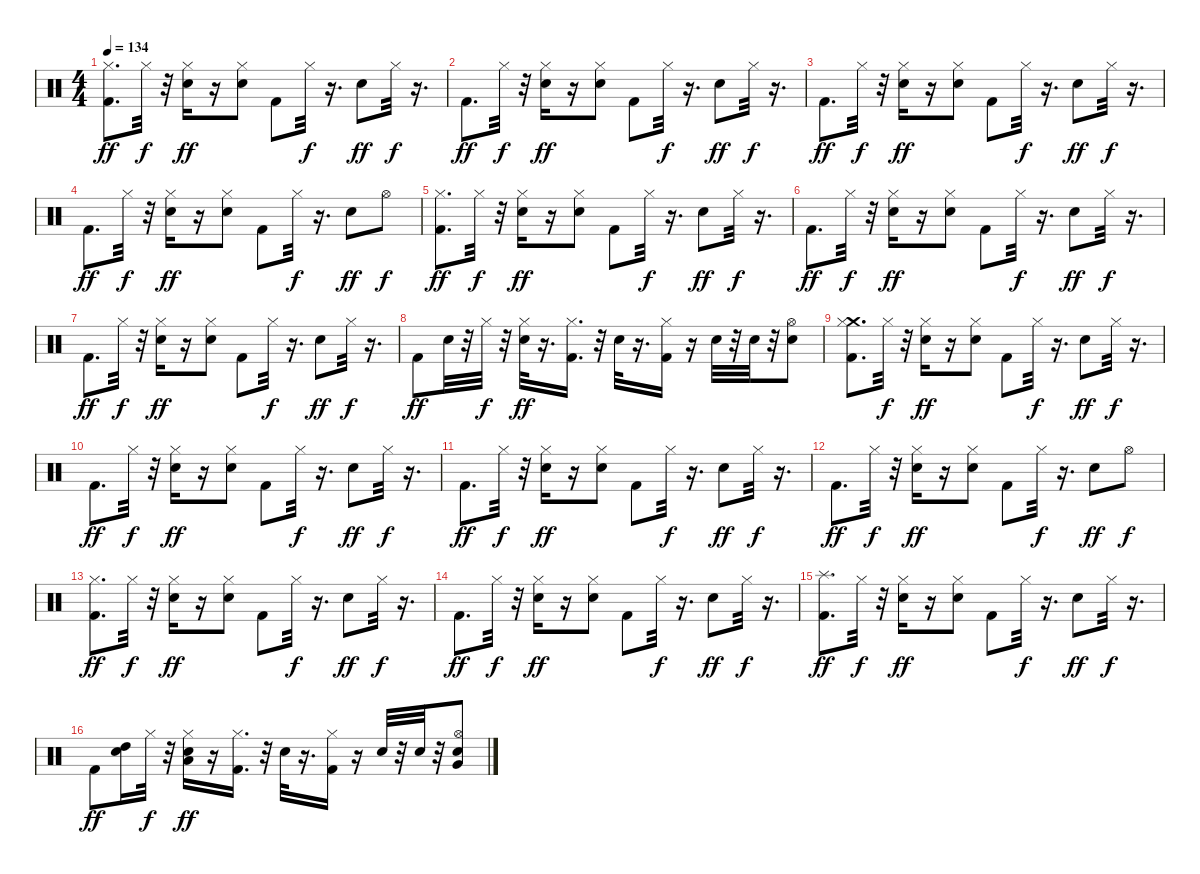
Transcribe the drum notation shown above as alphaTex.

\track "" {instrument percussion}
\staff {score}
\articulation defaults
\ts (4 4)
\tempo 134
\clef neutral
\ks c
("Hi-Hat (closed)" "Kick (hit) 2").8{d dy ff} "Hi-Hat (closed)".32{dy f} r.32 ("Hi-Hat (closed)" "Snare (hit) 2").16{dy ff} r.16 ("Hi-Hat (closed)" "Snare (hit) 2").8 "Kick (hit) 2".8 "Hi-Hat (closed)".32{dy f} r.16{d} "Snare (hit) 2".8{dy ff} "Hi-Hat (closed)".32{dy f} r.16{d} |
"Kick (hit) 2".8{d dy ff} "Hi-Hat (closed)".32{dy f} r.32 ("Hi-Hat (closed)" "Snare (hit) 2").16{dy ff} r.16 ("Snare (hit) 2" "Hi-Hat (closed)").8 "Kick (hit) 2".8 "Hi-Hat (closed)".32{dy f} r.16{d} "Snare (hit) 2".8{dy ff} "Hi-Hat (closed)".32{dy f} r.16{d} |
"Kick (hit) 2".8{d dy ff} "Hi-Hat (closed)".32{dy f} r.32 ("Snare (hit) 2" "Hi-Hat (closed)").16{dy ff} r.16 ("Snare (hit) 2" "Hi-Hat (closed)").8 "Kick (hit) 2".8 "Hi-Hat (closed)".32{dy f} r.16{d} "Snare (hit) 2".8{dy ff} "Hi-Hat (closed)".32{dy f} r.16{d} |
"Kick (hit) 2".8{d dy ff} "Hi-Hat (closed)".32{dy f} r.32 ("Snare (hit) 2" "Hi-Hat (closed)").16{dy ff} r.16 ("Snare (hit) 2" "Hi-Hat (closed)").8 "Kick (hit) 2".8 "Hi-Hat (closed)".32{dy f} r.16{d} "Snare (hit) 2".8{dy ff} "Hi-Hat (open)".8{dy f} |
("Hi-Hat (closed)" "Kick (hit) 2").8{d dy ff} "Hi-Hat (closed)".32{dy f} r.32 ("Snare (hit) 2" "Hi-Hat (closed)").16{dy ff} r.16 ("Hi-Hat (closed)" "Snare (hit) 2").8 "Kick (hit) 2".8 "Hi-Hat (closed)".32{dy f} r.16{d} "Snare (hit) 2".8{dy ff} "Hi-Hat (closed)".32{dy f} r.16{d} |
"Kick (hit) 2".8{d dy ff} "Hi-Hat (closed)".32{dy f} r.32 ("Snare (hit) 2" "Hi-Hat (closed)").16{dy ff} r.16 ("Hi-Hat (closed)" "Snare (hit) 2").8 "Kick (hit) 2".8 "Hi-Hat (closed)".32{dy f} r.16{d} "Snare (hit) 2".8{dy ff} "Hi-Hat (closed)".32{dy f} r.16{d} |
"Kick (hit) 2".8{d dy ff} "Hi-Hat (closed)".32{dy f} r.32 ("Snare (hit) 2" "Hi-Hat (closed)").16{dy ff} r.16 ("Snare (hit) 2" "Hi-Hat (closed)").8 "Kick (hit) 2".8 "Hi-Hat (closed)".32{dy f} r.16{d} "Snare (hit) 2".8{dy ff} "Hi-Hat (closed)".32{dy f} r.16{d} |
"Kick (hit) 2".8{dy ff} "Snare (hit) 2".32 r.32 "Hi-Hat (closed)".32{dy f} r.32 ("Snare (hit) 2" "Hi-Hat (closed)").32{dy ff} r.16{d} ("Hi-Hat (closed)" "Kick (hit) 2").16{d} r.32 "Snare (hit) 2".32 r.16{d} ("Hi-Hat (closed)" "Kick (hit) 2").16 r.16 "Snare (hit) 2".32 r.32 "Snare (hit) 2".32 r.32 ("Snare (hit) 2" "Hi-Hat (open)").8 |
("Crash medium (hit)" "Hi-Hat (closed)" "Kick (hit) 2").8{d} "Hi-Hat (closed)".32{dy f} r.32 ("Hi-Hat (closed)" "Snare (hit) 2").16{dy ff} r.16 ("Hi-Hat (closed)" "Snare (hit) 2").8 "Kick (hit) 2".8 "Hi-Hat (closed)".32{dy f} r.16{d} "Snare (hit) 2".8{dy ff} "Hi-Hat (closed)".32{dy f} r.16{d} |
"Kick (hit) 2".8{d dy ff} "Hi-Hat (closed)".32{dy f} r.32 ("Snare (hit) 2" "Hi-Hat (closed)").16{dy ff} r.16 ("Hi-Hat (closed)" "Snare (hit) 2").8 "Kick (hit) 2".8 "Hi-Hat (closed)".32{dy f} r.16{d} "Snare (hit) 2".8{dy ff} "Hi-Hat (closed)".32{dy f} r.16{d} |
"Kick (hit) 2".8{d dy ff} "Hi-Hat (closed)".32{dy f} r.32 ("Snare (hit) 2" "Hi-Hat (closed)").16{dy ff} r.16 ("Snare (hit) 2" "Hi-Hat (closed)").8 "Kick (hit) 2".8 "Hi-Hat (closed)".32{dy f} r.16{d} "Snare (hit) 2".8{dy ff} "Hi-Hat (closed)".32{dy f} r.16{d} |
"Kick (hit) 2".8{d dy ff} "Hi-Hat (closed)".32{dy f} r.32 ("Snare (hit) 2" "Hi-Hat (closed)").16{dy ff} r.16 ("Hi-Hat (closed)" "Snare (hit) 2").8 "Kick (hit) 2".8 "Hi-Hat (closed)".32{dy f} r.16{d} "Snare (hit) 2".8{dy ff} "Hi-Hat (open)".8{dy f} |
("Kick (hit) 2" "Hi-Hat (closed)").8{d dy ff} "Hi-Hat (closed)".32{dy f} r.32 ("Hi-Hat (closed)" "Snare (hit) 2").16{dy ff} r.16 ("Snare (hit) 2" "Hi-Hat (closed)").8 "Kick (hit) 2".8 "Hi-Hat (closed)".32{dy f} r.16{d} "Snare (hit) 2".8{dy ff} "Hi-Hat (closed)".32{dy f} r.16{d} |
"Kick (hit) 2".8{d dy ff} "Hi-Hat (closed)".32{dy f} r.32 ("Hi-Hat (closed)" "Snare (hit) 2").16{dy ff} r.16 ("Hi-Hat (closed)" "Snare (hit) 2").8 "Kick (hit) 2".8 "Hi-Hat (closed)".32{dy f} r.16{d} "Snare (hit) 2".8{dy ff} "Hi-Hat (closed)".32{dy f} r.16{d} |
("Kick (hit) 2" "Splash (hit)").8{d dy ff} "Hi-Hat (closed)".32{dy f} r.32 ("Hi-Hat (closed)" "Snare (hit) 2").16{dy ff} r.16 ("Hi-Hat (closed)" "Snare (hit) 2").8 "Kick (hit) 2".8 "Hi-Hat (closed)".32{dy f} r.16{d} "Snare (hit) 2".8{dy ff} "Hi-Hat (closed)".32{dy f} r.16{d} |
"Kick (hit) 2".8{dy ff} ("High Tom (hit)" "Snare (hit) 2").16 "Hi-Hat (closed)".32{dy f} r.32 ("Hi-Hat (closed)" "Low Tom (hit)" "Snare (hit) 2").16{dy ff} r.16 ("Hi-Hat (closed)" "Kick (hit) 2").16{d} r.32 "Snare (hit) 2".32 r.16{d} ("Kick (hit) 2" "Hi-Hat (closed)").16 r.16 "Snare (hit) 2".32 r.32 "Snare (hit) 2".32 r.32 ("Hi-Hat (open)" "Snare (hit) 2" "Very Low Tom (hit)").8
